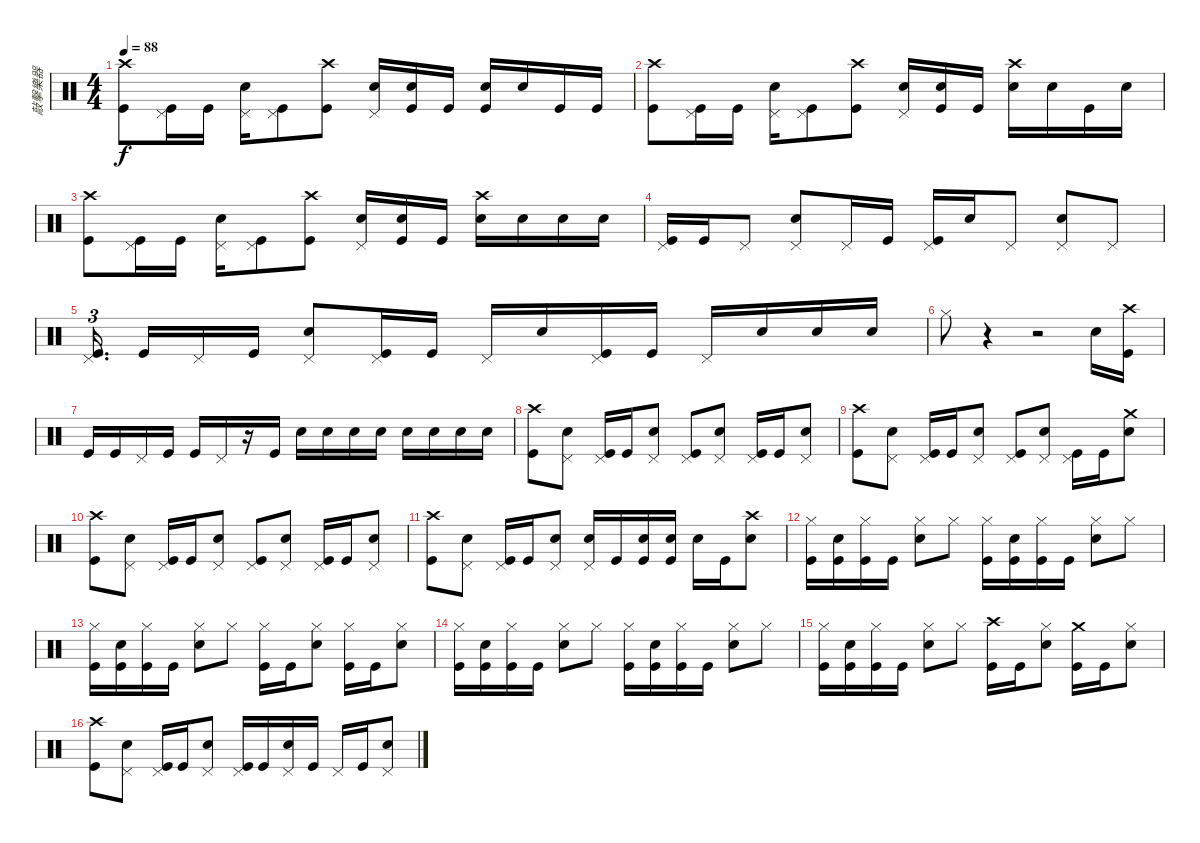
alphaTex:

\track ("敲擊樂器" "敲擊樂器") {instrument percussion}
\staff {score}
\articulation defaults
\ts (4 4)
\tempo 88
\clef neutral
\ks c
("Crash high (hit)" "Kick (hit)").8{dy f} ("Pedal Hi-Hat (hit)" "Kick (hit)").16 "Kick (hit)".16 ("Pedal Hi-Hat (hit)" "Snare (hit) 2").16 ("Pedal Hi-Hat (hit)" "Kick (hit)").8 ("Crash high (hit)" "Kick (hit)").8 ("Pedal Hi-Hat (hit)" "Snare (hit) 2").16 ("Snare (hit) 2" "Kick (hit)").16 "Kick (hit)".16 ("Snare (hit) 2" "Kick (hit)").16 "Snare (hit) 2".16 "Kick (hit)".16 "Kick (hit)".16 |
("Crash high (hit)" "Kick (hit)").8 ("Pedal Hi-Hat (hit)" "Kick (hit)").16 "Kick (hit)".16 ("Pedal Hi-Hat (hit)" "Snare (hit) 2").16 ("Pedal Hi-Hat (hit)" "Kick (hit)").8 ("Crash high (hit)" "Kick (hit)").8 ("Pedal Hi-Hat (hit)" "Snare (hit) 2").16 ("Snare (hit) 2" "Kick (hit)").16 "Kick (hit)".16 ("Crash high (hit)" "Snare (hit) 2").16 "Snare (hit) 2".16 "Kick (hit)".16 "Snare (hit) 2".16 |
("Crash high (hit)" "Kick (hit)").8 ("Pedal Hi-Hat (hit)" "Kick (hit)").16 "Kick (hit)".16 ("Pedal Hi-Hat (hit)" "Snare (hit) 2").16 ("Pedal Hi-Hat (hit)" "Kick (hit)").8 ("Crash high (hit)" "Kick (hit)").8 ("Pedal Hi-Hat (hit)" "Snare (hit) 2").16 ("Snare (hit) 2" "Kick (hit)").16 "Kick (hit)".16 ("Crash high (hit)" "Snare (hit) 2").16 "Snare (hit) 2".16 "Snare (hit) 2".16 "Snare (hit) 2".16 |
("Pedal Hi-Hat (hit)" "Kick (hit)").16 "Kick (hit)".16 "Pedal Hi-Hat (hit)".8 ("Pedal Hi-Hat (hit)" "Snare (hit) 2").8 "Pedal Hi-Hat (hit)".16 "Kick (hit)".16 ("Pedal Hi-Hat (hit)" "Kick (hit)").16 "Snare (hit) 2".16 "Pedal Hi-Hat (hit)".8 ("Pedal Hi-Hat (hit)" "Snare (hit) 2").8 "Pedal Hi-Hat (hit)".8 |
("Pedal Hi-Hat (hit)" "Kick (hit)").16{d tu (3 2) beam splitsecondary} "Kick (hit)".16 "Pedal Hi-Hat (hit)".16 "Kick (hit)".16 ("Pedal Hi-Hat (hit)" "Snare (hit) 2").8 ("Pedal Hi-Hat (hit)" "Kick (hit)").16 "Kick (hit)".16 "Pedal Hi-Hat (hit)".16 "Snare (hit) 2".16 ("Pedal Hi-Hat (hit)" "Kick (hit)").16 "Kick (hit)".16 "Pedal Hi-Hat (hit)".16 "Snare (hit) 2".16 "Snare (hit) 2".16 "Snare (hit) 2".16 |
"Hi-Hat (closed)".8 r.4 r.2 "Snare (hit) 2".16 ("Crash high (hit)" "Kick (hit)").16 |
"Kick (hit)".16 "Kick (hit)".16 "Pedal Hi-Hat (hit)".16 "Kick (hit)".16 "Kick (hit)".16 "Pedal Hi-Hat (hit)".16 r.16 "Kick (hit)".16 "Snare (hit) 2".16 "Snare (hit) 2".16 "Snare (hit) 2".16 "Snare (hit) 2".16 "Snare (hit) 2".16 "Snare (hit) 2".16 "Snare (hit) 2".16 "Snare (hit) 2".16 |
("Crash high (hit)" "Kick (hit)").8 ("Pedal Hi-Hat (hit)" "Snare (hit) 2").8 ("Pedal Hi-Hat (hit)" "Kick (hit)").16 "Kick (hit)".16 ("Pedal Hi-Hat (hit)" "Snare (hit) 2").8 ("Pedal Hi-Hat (hit)" "Kick (hit)").8 ("Pedal Hi-Hat (hit)" "Snare (hit) 2").8 ("Pedal Hi-Hat (hit)" "Kick (hit)").16 "Kick (hit)".16 ("Pedal Hi-Hat (hit)" "Snare (hit) 2").8 |
("Crash high (hit)" "Kick (hit)").8 ("Pedal Hi-Hat (hit)" "Snare (hit) 2").8 ("Pedal Hi-Hat (hit)" "Kick (hit)").16 "Kick (hit)".16 ("Pedal Hi-Hat (hit)" "Snare (hit) 2").8 ("Pedal Hi-Hat (hit)" "Kick (hit)").8 ("Pedal Hi-Hat (hit)" "Snare (hit) 2").8 ("Pedal Hi-Hat (hit)" "Kick (hit)").16 "Kick (hit)".16 ("Crash medium (hit)" "Snare (hit) 2").8 |
("Crash high (hit)" "Kick (hit)").8 ("Pedal Hi-Hat (hit)" "Snare (hit) 2").8 ("Pedal Hi-Hat (hit)" "Kick (hit)").16 "Kick (hit)".16 ("Pedal Hi-Hat (hit)" "Snare (hit) 2").8 ("Pedal Hi-Hat (hit)" "Kick (hit)").8 ("Pedal Hi-Hat (hit)" "Snare (hit) 2").8 ("Pedal Hi-Hat (hit)" "Kick (hit)").16 "Kick (hit)".16 ("Pedal Hi-Hat (hit)" "Snare (hit) 2").8 |
("Crash high (hit)" "Kick (hit)").8 ("Pedal Hi-Hat (hit)" "Snare (hit) 2").8 ("Pedal Hi-Hat (hit)" "Kick (hit)").16 "Kick (hit)".16 ("Pedal Hi-Hat (hit)" "Snare (hit) 2").8 ("Pedal Hi-Hat (hit)" "Snare (hit) 2").16 "Kick (hit)".16 ("Snare (hit) 2" "Kick (hit)").16 ("Snare (hit) 2" "Kick (hit)").16 "Snare (hit) 2".16 "Kick (hit)".16 ("Crash high (hit)" "Snare (hit) 2").8 |
("Hi-Hat (closed)" "Kick (hit)").16 ("Snare (hit) 2" "Kick (hit)").16 ("Hi-Hat (closed)" "Kick (hit)").16 "Kick (hit)".16 ("Hi-Hat (closed)" "Snare (hit) 2").8 "Hi-Hat (closed)".8 ("Hi-Hat (closed)" "Kick (hit)").16 ("Snare (hit) 2" "Kick (hit)").16 ("Hi-Hat (closed)" "Kick (hit)").16 "Kick (hit)".16 ("Hi-Hat (closed)" "Snare (hit) 2").8 "Hi-Hat (closed)".8 |
("Hi-Hat (closed)" "Kick (hit)").16 ("Snare (hit) 2" "Kick (hit)").16 ("Hi-Hat (closed)" "Kick (hit)").16 "Kick (hit)".16 ("Hi-Hat (closed)" "Snare (hit) 2").8 "Hi-Hat (closed)".8 ("Hi-Hat (closed)" "Kick (hit)").16 "Kick (hit)".16 ("Hi-Hat (closed)" "Snare (hit) 2").8 ("Hi-Hat (closed)" "Kick (hit)").16 "Kick (hit)".16 ("Hi-Hat (closed)" "Snare (hit) 2").8 |
("Hi-Hat (closed)" "Kick (hit)").16 ("Snare (hit) 2" "Kick (hit)").16 ("Hi-Hat (closed)" "Kick (hit)").16 "Kick (hit)".16 ("Hi-Hat (closed)" "Snare (hit) 2").8 "Hi-Hat (closed)".8 ("Hi-Hat (closed)" "Kick (hit)").16 ("Snare (hit) 2" "Kick (hit)").16 ("Hi-Hat (closed)" "Kick (hit)").16 "Kick (hit)".16 ("Hi-Hat (closed)" "Snare (hit) 2").8 "Hi-Hat (closed)".8 |
("Hi-Hat (closed)" "Kick (hit)").16 ("Snare (hit) 2" "Kick (hit)").16 ("Hi-Hat (closed)" "Kick (hit)").16 "Kick (hit)".16 ("Hi-Hat (closed)" "Snare (hit) 2").8 "Hi-Hat (closed)".8 ("Crash high (hit)" "Kick (hit)").16 "Kick (hit)".16 ("Hi-Hat (closed)" "Snare (hit) 2").8 ("Crash medium (hit)" "Kick (hit)").16 "Kick (hit)".16 ("Hi-Hat (closed)" "Snare (hit) 2").8 |
("Crash high (hit)" "Kick (hit)").8 ("Pedal Hi-Hat (hit)" "Snare (hit) 2").8 ("Pedal Hi-Hat (hit)" "Kick (hit)").16 "Kick (hit)".16 ("Pedal Hi-Hat (hit)" "Snare (hit) 2").8 ("Pedal Hi-Hat (hit)" "Kick (hit)").16 "Kick (hit)".16 ("Pedal Hi-Hat (hit)" "Snare (hit) 2").16 "Kick (hit)".16 "Pedal Hi-Hat (hit)".16 "Kick (hit)".16 ("Pedal Hi-Hat (hit)" "Snare (hit) 2").8
